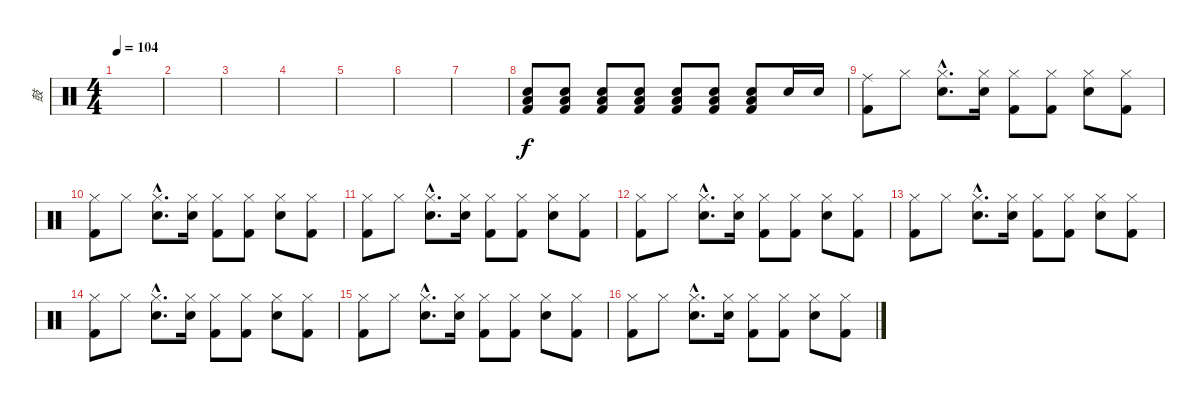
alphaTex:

\track ("鼓" "鼓") {instrument percussion}
\staff {score}
\articulation defaults
\ts (4 4)
\tempo 104
\clef neutral
\ks c
|
|
|
|
|
|
|
("Snare (hit) 2" "Low Tom (hit)" "Kick (hit) 2").8 ("Snare (hit) 2" "Low Tom (hit)" "Kick (hit) 2").8 ("Snare (hit) 2" "Low Tom (hit)" "Kick (hit) 2").8 ("Snare (hit) 2" "Low Tom (hit)" "Kick (hit) 2").8 ("Snare (hit) 2" "Low Tom (hit)" "Kick (hit) 2").8 ("Snare (hit) 2" "Low Tom (hit)" "Kick (hit) 2").8 ("Snare (hit) 2" "Low Tom (hit)" "Kick (hit) 2").8 "Snare (hit) 2".16 "Snare (hit) 2".16 |
("Ride (middle)" "Kick (hit) 2").8 "Hi-Hat (closed)".8 ("Hi-Hat (closed)"{hac} "Snare (hit) 2"{hac}).8{d} ("Hi-Hat (closed)" "Snare (hit) 2").16 ("Hi-Hat (closed)" "Kick (hit) 2").8 ("Hi-Hat (closed)" "Kick (hit) 2").8 ("Hi-Hat (closed)" "Snare (hit) 2").8 ("Hi-Hat (closed)" "Kick (hit) 2").8 |
("Hi-Hat (closed)" "Kick (hit) 2").8 "Hi-Hat (closed)".8 ("Hi-Hat (closed)"{hac} "Snare (hit) 2"{hac}).8{d} ("Hi-Hat (closed)" "Snare (hit) 2").16 ("Hi-Hat (closed)" "Kick (hit) 2").8 ("Hi-Hat (closed)" "Kick (hit) 2").8 ("Hi-Hat (closed)" "Snare (hit) 2").8 ("Hi-Hat (closed)" "Kick (hit) 2").8 |
("Hi-Hat (closed)" "Kick (hit) 2").8 "Hi-Hat (closed)".8 ("Hi-Hat (closed)"{hac} "Snare (hit) 2"{hac}).8{d} ("Hi-Hat (closed)" "Snare (hit) 2").16 ("Hi-Hat (closed)" "Kick (hit) 2").8 ("Hi-Hat (closed)" "Kick (hit) 2").8 ("Hi-Hat (closed)" "Snare (hit) 2").8 ("Hi-Hat (closed)" "Kick (hit) 2").8 |
("Hi-Hat (closed)" "Kick (hit) 2").8 "Hi-Hat (closed)".8 ("Hi-Hat (closed)"{hac} "Snare (hit) 2"{hac}).8{d} ("Hi-Hat (closed)" "Snare (hit) 2").16 ("Hi-Hat (closed)" "Kick (hit) 2").8 ("Hi-Hat (closed)" "Kick (hit) 2").8 ("Hi-Hat (closed)" "Snare (hit) 2").8 ("Hi-Hat (closed)" "Kick (hit) 2").8 |
("Hi-Hat (closed)" "Kick (hit) 2").8 "Hi-Hat (closed)".8 ("Hi-Hat (closed)"{hac} "Snare (hit) 2"{hac}).8{d} ("Hi-Hat (closed)" "Snare (hit) 2").16 ("Hi-Hat (closed)" "Kick (hit) 2").8 ("Hi-Hat (closed)" "Kick (hit) 2").8 ("Hi-Hat (closed)" "Snare (hit) 2").8 ("Hi-Hat (closed)" "Kick (hit) 2").8 |
("Hi-Hat (closed)" "Kick (hit) 2").8 "Hi-Hat (closed)".8 ("Hi-Hat (closed)"{hac} "Snare (hit) 2"{hac}).8{d} ("Hi-Hat (closed)" "Snare (hit) 2").16 ("Hi-Hat (closed)" "Kick (hit) 2").8 ("Hi-Hat (closed)" "Kick (hit) 2").8 ("Hi-Hat (closed)" "Snare (hit) 2").8 ("Hi-Hat (closed)" "Kick (hit) 2").8 |
("Hi-Hat (closed)" "Kick (hit) 2").8 "Hi-Hat (closed)".8 ("Hi-Hat (closed)"{hac} "Snare (hit) 2"{hac}).8{d} ("Hi-Hat (closed)" "Snare (hit) 2").16 ("Hi-Hat (closed)" "Kick (hit) 2").8 ("Hi-Hat (closed)" "Kick (hit) 2").8 ("Hi-Hat (closed)" "Snare (hit) 2").8 ("Hi-Hat (closed)" "Kick (hit) 2").8 |
("Hi-Hat (closed)" "Kick (hit) 2").8 "Hi-Hat (closed)".8 ("Hi-Hat (closed)"{hac} "Snare (hit) 2"{hac}).8{d} ("Hi-Hat (closed)" "Snare (hit) 2").16 ("Hi-Hat (closed)" "Kick (hit) 2").8 ("Hi-Hat (closed)" "Kick (hit) 2").8 ("Hi-Hat (closed)" "Snare (hit) 2").8 ("Hi-Hat (closed)" "Kick (hit) 2").8
